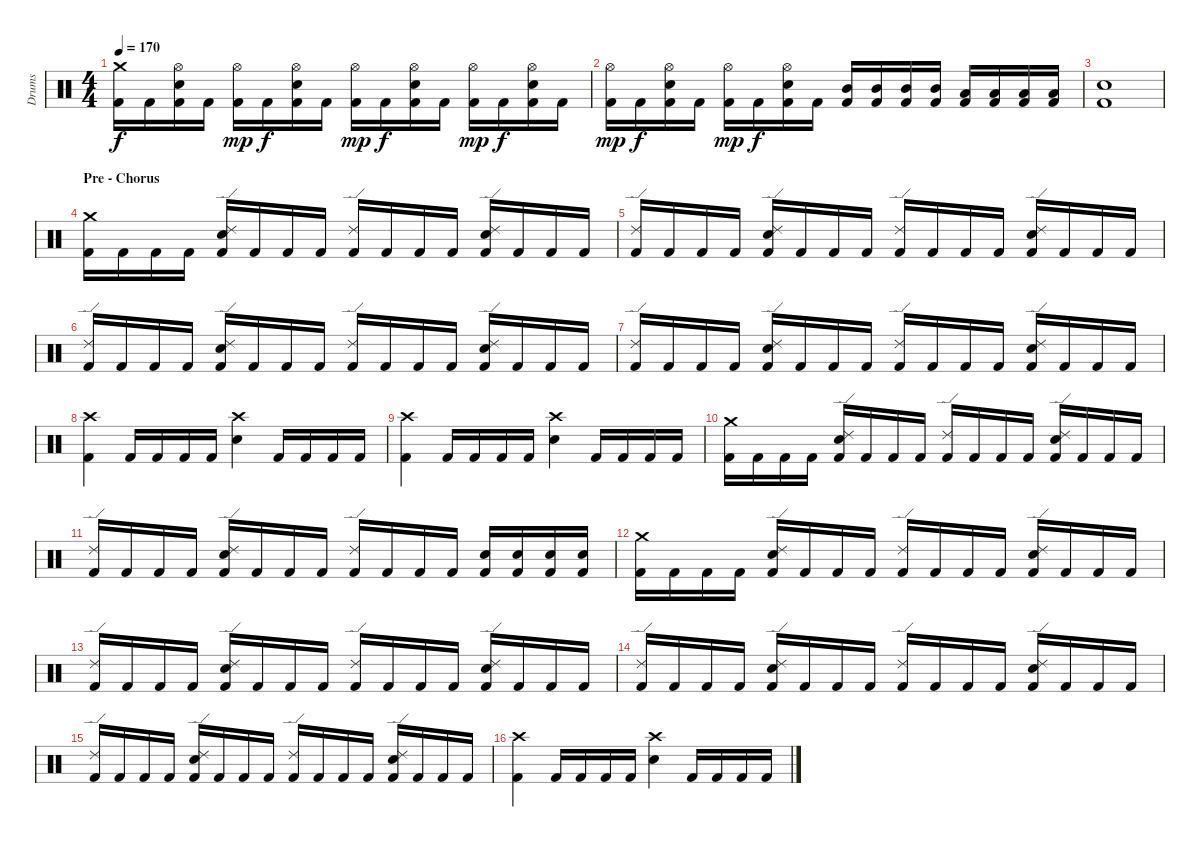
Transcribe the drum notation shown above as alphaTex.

\track ("Drums" "Drums") {instrument percussion}
\staff {score}
\articulation defaults
\ts (4 4)
\tempo 170
\clef neutral
\ks c
("Kick (hit) 2" "Crash medium (hit)").16{dy f} "Kick (hit) 2".16 ("Kick (hit) 2" "Electric Snare (hit)" "Hi-Hat (open)").16 "Kick (hit) 2".16 ("Kick (hit) 2" "Hi-Hat (open)").16{dy mp} "Kick (hit) 2".16{dy f} ("Kick (hit) 2" "Electric Snare (hit)" "Hi-Hat (open)").16 "Kick (hit) 2".16 ("Kick (hit) 2" "Hi-Hat (open)").16{dy mp} "Kick (hit) 2".16{dy f} ("Kick (hit) 2" "Electric Snare (hit)" "Hi-Hat (open)").16 "Kick (hit) 2".16 ("Kick (hit) 2" "Hi-Hat (open)").16{dy mp} "Kick (hit) 2".16{dy f} ("Kick (hit) 2" "Electric Snare (hit)" "Hi-Hat (open)").16 "Kick (hit) 2".16 |
("Kick (hit) 2" "Hi-Hat (open)").16{dy mp} "Kick (hit) 2".16{dy f} ("Kick (hit) 2" "Electric Snare (hit)" "Hi-Hat (open)").16 "Kick (hit) 2".16 ("Kick (hit) 2" "Hi-Hat (open)").16{dy mp} "Kick (hit) 2".16{dy f} ("Kick (hit) 2" "Electric Snare (hit)" "Hi-Hat (open)").16 "Kick (hit) 2".16 ("Kick (hit) 2" "Mid Tom (hit)").16 ("Kick (hit) 2" "Mid Tom (hit)").16 ("Kick (hit) 2" "Mid Tom (hit)").16 ("Kick (hit) 2" "Mid Tom (hit)").16 ("Kick (hit) 2" "Low Tom (hit)").16 ("Kick (hit) 2" "Low Tom (hit)").16 ("Kick (hit) 2" "Low Tom (hit)").16 ("Kick (hit) 2" "Low Tom (hit)").16 |
("Kick (hit) 2" "Electric Snare (hit)").1 |
\section ("" "Pre - Chorus")
("Kick (hit) 2" "Crash medium (hit)").16 "Kick (hit) 2".16 "Kick (hit) 2".16 "Kick (hit) 2".16 ("Kick (hit) 2" "Electric Snare (hit)" "Ride (edge) 2").16 "Kick (hit) 2".16 "Kick (hit) 2".16 "Kick (hit) 2".16 ("Kick (hit) 2" "Ride (edge) 2").16 "Kick (hit) 2".16 "Kick (hit) 2".16 "Kick (hit) 2".16 ("Kick (hit) 2" "Electric Snare (hit)" "Ride (edge) 2").16 "Kick (hit) 2".16 "Kick (hit) 2".16 "Kick (hit) 2".16 |
("Kick (hit) 2" "Ride (edge) 2").16 "Kick (hit) 2".16 "Kick (hit) 2".16 "Kick (hit) 2".16 ("Kick (hit) 2" "Electric Snare (hit)" "Ride (edge) 2").16 "Kick (hit) 2".16 "Kick (hit) 2".16 "Kick (hit) 2".16 ("Kick (hit) 2" "Ride (edge) 2").16 "Kick (hit) 2".16 "Kick (hit) 2".16 "Kick (hit) 2".16 ("Kick (hit) 2" "Electric Snare (hit)" "Ride (edge) 2").16 "Kick (hit) 2".16 "Kick (hit) 2".16 "Kick (hit) 2".16 |
("Kick (hit) 2" "Ride (edge) 2").16 "Kick (hit) 2".16 "Kick (hit) 2".16 "Kick (hit) 2".16 ("Kick (hit) 2" "Electric Snare (hit)" "Ride (edge) 2").16 "Kick (hit) 2".16 "Kick (hit) 2".16 "Kick (hit) 2".16 ("Kick (hit) 2" "Ride (edge) 2").16 "Kick (hit) 2".16 "Kick (hit) 2".16 "Kick (hit) 2".16 ("Kick (hit) 2" "Electric Snare (hit)" "Ride (edge) 2").16 "Kick (hit) 2".16 "Kick (hit) 2".16 "Kick (hit) 2".16 |
("Kick (hit) 2" "Ride (edge) 2").16 "Kick (hit) 2".16 "Kick (hit) 2".16 "Kick (hit) 2".16 ("Kick (hit) 2" "Electric Snare (hit)" "Ride (edge) 2").16 "Kick (hit) 2".16 "Kick (hit) 2".16 "Kick (hit) 2".16 ("Kick (hit) 2" "Ride (edge) 2").16 "Kick (hit) 2".16 "Kick (hit) 2".16 "Kick (hit) 2".16 ("Kick (hit) 2" "Electric Snare (hit)" "Ride (edge) 2").16 "Kick (hit) 2".16 "Kick (hit) 2".16 "Kick (hit) 2".16 |
("Kick (hit) 2" "Crash high (hit)").4 "Kick (hit) 2".16 "Kick (hit) 2".16 "Kick (hit) 2".16 "Kick (hit) 2".16 ("Electric Snare (hit)" "Crash high (hit)").4 "Kick (hit) 2".16 "Kick (hit) 2".16 "Kick (hit) 2".16 "Kick (hit) 2".16 |
("Kick (hit) 2" "Crash high (hit)").4 "Kick (hit) 2".16 "Kick (hit) 2".16 "Kick (hit) 2".16 "Kick (hit) 2".16 ("Electric Snare (hit)" "Crash high (hit)").4 "Kick (hit) 2".16 "Kick (hit) 2".16 "Kick (hit) 2".16 "Kick (hit) 2".16 |
("Kick (hit) 2" "Crash medium (hit)").16 "Kick (hit) 2".16 "Kick (hit) 2".16 "Kick (hit) 2".16 ("Kick (hit) 2" "Electric Snare (hit)" "Ride (edge) 2").16 "Kick (hit) 2".16 "Kick (hit) 2".16 "Kick (hit) 2".16 ("Kick (hit) 2" "Ride (edge) 2").16 "Kick (hit) 2".16 "Kick (hit) 2".16 "Kick (hit) 2".16 ("Kick (hit) 2" "Electric Snare (hit)" "Ride (edge) 2").16 "Kick (hit) 2".16 "Kick (hit) 2".16 "Kick (hit) 2".16 |
("Kick (hit) 2" "Ride (edge) 2").16 "Kick (hit) 2".16 "Kick (hit) 2".16 "Kick (hit) 2".16 ("Kick (hit) 2" "Electric Snare (hit)" "Ride (edge) 2").16 "Kick (hit) 2".16 "Kick (hit) 2".16 "Kick (hit) 2".16 ("Kick (hit) 2" "Ride (edge) 2").16 "Kick (hit) 2".16 "Kick (hit) 2".16 "Kick (hit) 2".16 ("Kick (hit) 2" "Electric Snare (hit)").16 ("Kick (hit) 2" "Electric Snare (hit)").16 ("Kick (hit) 2" "Electric Snare (hit)").16 ("Kick (hit) 2" "Electric Snare (hit)").16 |
("Kick (hit) 2" "Crash medium (hit)").16 "Kick (hit) 2".16 "Kick (hit) 2".16 "Kick (hit) 2".16 ("Kick (hit) 2" "Electric Snare (hit)" "Ride (edge) 2").16 "Kick (hit) 2".16 "Kick (hit) 2".16 "Kick (hit) 2".16 ("Kick (hit) 2" "Ride (edge) 2").16 "Kick (hit) 2".16 "Kick (hit) 2".16 "Kick (hit) 2".16 ("Kick (hit) 2" "Electric Snare (hit)" "Ride (edge) 2").16 "Kick (hit) 2".16 "Kick (hit) 2".16 "Kick (hit) 2".16 |
("Kick (hit) 2" "Ride (edge) 2").16 "Kick (hit) 2".16 "Kick (hit) 2".16 "Kick (hit) 2".16 ("Kick (hit) 2" "Electric Snare (hit)" "Ride (edge) 2").16 "Kick (hit) 2".16 "Kick (hit) 2".16 "Kick (hit) 2".16 ("Kick (hit) 2" "Ride (edge) 2").16 "Kick (hit) 2".16 "Kick (hit) 2".16 "Kick (hit) 2".16 ("Kick (hit) 2" "Electric Snare (hit)" "Ride (edge) 2").16 "Kick (hit) 2".16 "Kick (hit) 2".16 "Kick (hit) 2".16 |
("Kick (hit) 2" "Ride (edge) 2").16 "Kick (hit) 2".16 "Kick (hit) 2".16 "Kick (hit) 2".16 ("Kick (hit) 2" "Electric Snare (hit)" "Ride (edge) 2").16 "Kick (hit) 2".16 "Kick (hit) 2".16 "Kick (hit) 2".16 ("Kick (hit) 2" "Ride (edge) 2").16 "Kick (hit) 2".16 "Kick (hit) 2".16 "Kick (hit) 2".16 ("Kick (hit) 2" "Electric Snare (hit)" "Ride (edge) 2").16 "Kick (hit) 2".16 "Kick (hit) 2".16 "Kick (hit) 2".16 |
("Kick (hit) 2" "Ride (edge) 2").16 "Kick (hit) 2".16 "Kick (hit) 2".16 "Kick (hit) 2".16 ("Kick (hit) 2" "Electric Snare (hit)" "Ride (edge) 2").16 "Kick (hit) 2".16 "Kick (hit) 2".16 "Kick (hit) 2".16 ("Kick (hit) 2" "Ride (edge) 2").16 "Kick (hit) 2".16 "Kick (hit) 2".16 "Kick (hit) 2".16 ("Kick (hit) 2" "Electric Snare (hit)" "Ride (edge) 2").16 "Kick (hit) 2".16 "Kick (hit) 2".16 "Kick (hit) 2".16 |
("Kick (hit) 2" "Crash high (hit)").4 "Kick (hit) 2".16 "Kick (hit) 2".16 "Kick (hit) 2".16 "Kick (hit) 2".16 ("Electric Snare (hit)" "Crash high (hit)").4 "Kick (hit) 2".16 "Kick (hit) 2".16 "Kick (hit) 2".16 "Kick (hit) 2".16
